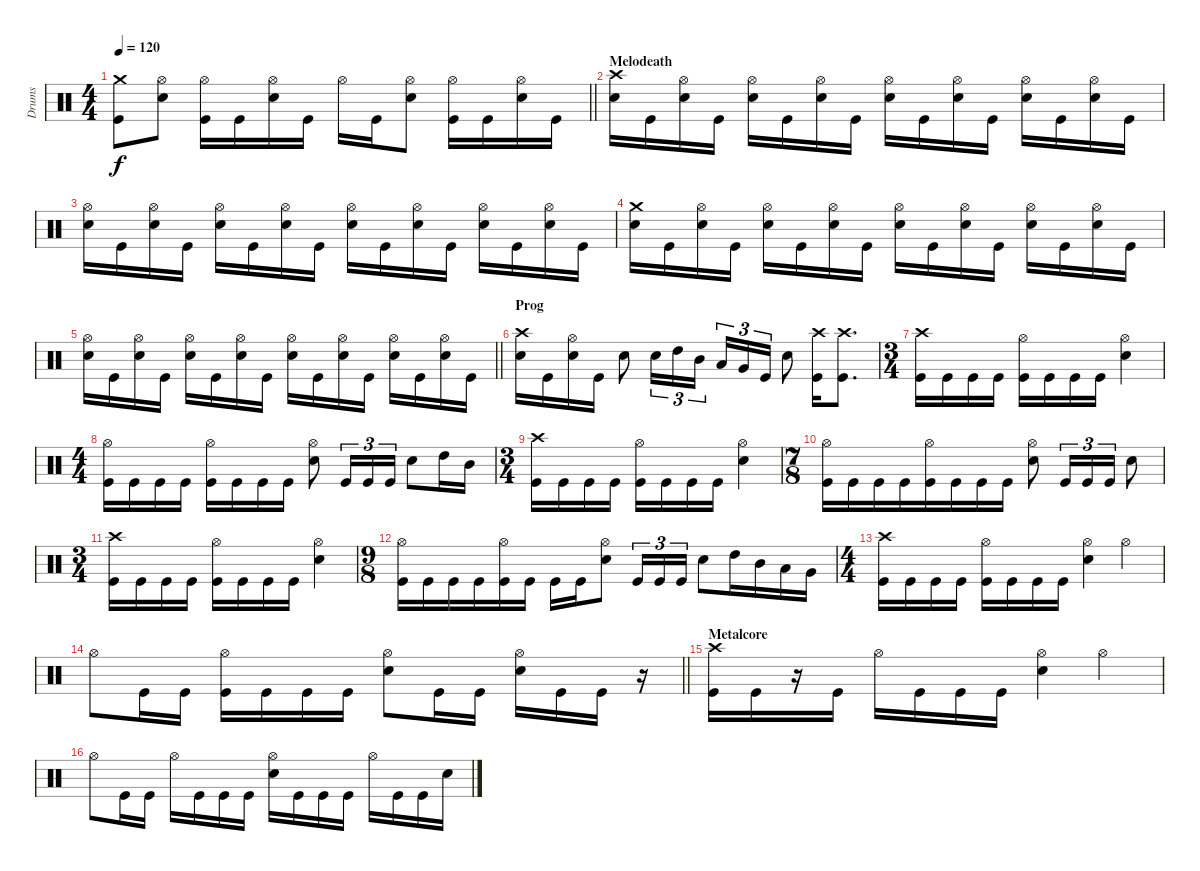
\track ("Drums" "Drums") {instrument percussion}
\staff {score}
\articulation defaults
\ts (4 4)
\tempo 120
\clef neutral
\barLineRight lightlight
\ks c
("Crash medium (hit)" "Kick (hit)").8{dy f} ("Hi-Hat (open)" "Electric Snare (hit)").8 ("Hi-Hat (open)" "Kick (hit)").16 "Kick (hit)".16 ("Hi-Hat (open)" "Electric Snare (hit)").16 "Kick (hit)".16 "Hi-Hat (open)".16 "Kick (hit)".16 ("Hi-Hat (open)" "Electric Snare (hit)").8 ("Hi-Hat (open)" "Kick (hit)").16 "Kick (hit)".16 ("Hi-Hat (open)" "Electric Snare (hit)").16 "Kick (hit)".16 |
\section ("" "Melodeath")
("Crash high (hit)" "Electric Snare (hit)").16 "Kick (hit)".16 ("Hi-Hat (open)" "Electric Snare (hit)").16 "Kick (hit)".16 ("Hi-Hat (open)" "Electric Snare (hit)").16 "Kick (hit)".16 ("Hi-Hat (open)" "Electric Snare (hit)").16 "Kick (hit)".16 ("Hi-Hat (open)" "Electric Snare (hit)").16 "Kick (hit)".16 ("Hi-Hat (open)" "Electric Snare (hit)").16 "Kick (hit)".16 ("Hi-Hat (open)" "Electric Snare (hit)").16 "Kick (hit)".16 ("Hi-Hat (open)" "Electric Snare (hit)").16 "Kick (hit)".16 |
("Hi-Hat (open)" "Electric Snare (hit)").16 "Kick (hit)".16 ("Hi-Hat (open)" "Electric Snare (hit)").16 "Kick (hit)".16 ("Hi-Hat (open)" "Electric Snare (hit)").16 "Kick (hit)".16 ("Hi-Hat (open)" "Electric Snare (hit)").16 "Kick (hit)".16 ("Hi-Hat (open)" "Electric Snare (hit)").16 "Kick (hit)".16 ("Hi-Hat (open)" "Electric Snare (hit)").16 "Kick (hit)".16 ("Hi-Hat (open)" "Electric Snare (hit)").16 "Kick (hit)".16 ("Hi-Hat (open)" "Electric Snare (hit)").16 "Kick (hit)".16 |
("Crash medium (hit)" "Electric Snare (hit)").16 "Kick (hit)".16 ("Hi-Hat (open)" "Electric Snare (hit)").16 "Kick (hit)".16 ("Hi-Hat (open)" "Electric Snare (hit)").16 "Kick (hit)".16 ("Hi-Hat (open)" "Electric Snare (hit)").16 "Kick (hit)".16 ("Hi-Hat (open)" "Electric Snare (hit)").16 "Kick (hit)".16 ("Hi-Hat (open)" "Electric Snare (hit)").16 "Kick (hit)".16 ("Hi-Hat (open)" "Electric Snare (hit)").16 "Kick (hit)".16 ("Hi-Hat (open)" "Electric Snare (hit)").16 "Kick (hit)".16 |
\barLineRight lightlight
("Hi-Hat (open)" "Electric Snare (hit)").16 "Kick (hit)".16 ("Hi-Hat (open)" "Electric Snare (hit)").16 "Kick (hit)".16 ("Hi-Hat (open)" "Electric Snare (hit)").16 "Kick (hit)".16 ("Hi-Hat (open)" "Electric Snare (hit)").16 "Kick (hit)".16 ("Hi-Hat (open)" "Electric Snare (hit)").16 "Kick (hit)".16 ("Hi-Hat (open)" "Electric Snare (hit)").16 "Kick (hit)".16 ("Hi-Hat (open)" "Electric Snare (hit)").16 "Kick (hit)".16 ("Hi-Hat (open)" "Electric Snare (hit)").16 "Kick (hit)".16 |
\section ("" "Prog")
("Crash high (hit)" "Electric Snare (hit)").16 "Kick (hit)".16 ("Hi-Hat (open)" "Electric Snare (hit)").16 "Kick (hit)".16 "Electric Snare (hit)".8 "Electric Snare (hit)".16{tu (3 2)} "High Tom (hit)".16{tu (3 2)} "Mid Tom (hit)".16{tu (3 2)} "Low Tom (hit)".16{tu (3 2)} "Very Low Tom (hit)".16{tu (3 2)} "Kick (hit)".16{tu (3 2)} "Electric Snare (hit)".8 ("Crash high (hit)" "Kick (hit)").16 ("Crash high (hit)" "Kick (hit)").8{d} |
\ts (3 4)
("Crash high (hit)" "Kick (hit)").16 "Kick (hit)".16 "Kick (hit)".16 "Kick (hit)".16 ("Hi-Hat (open)" "Kick (hit)").16 "Kick (hit)".16 "Kick (hit)".16 "Kick (hit)".16 ("Hi-Hat (open)" "Electric Snare (hit)").4 |
\ts (4 4)
("Hi-Hat (open)" "Kick (hit)").16 "Kick (hit)".16 "Kick (hit)".16 "Kick (hit)".16 ("Hi-Hat (open)" "Kick (hit)").16 "Kick (hit)".16 "Kick (hit)".16 "Kick (hit)".16 ("Hi-Hat (open)" "Electric Snare (hit)").8 "Kick (hit)".16{tu (3 2)} "Kick (hit)".16{tu (3 2)} "Kick (hit)".16{tu (3 2)} "Electric Snare (hit)".8 "High Tom (hit)".16 "Mid Tom (hit)".16 |
\ts (3 4)
("Crash high (hit)" "Kick (hit)").16 "Kick (hit)".16 "Kick (hit)".16 "Kick (hit)".16 ("Hi-Hat (open)" "Kick (hit)").16 "Kick (hit)".16 "Kick (hit)".16 "Kick (hit)".16 ("Hi-Hat (open)" "Electric Snare (hit)").4 |
\ts (7 8)
("Hi-Hat (open)" "Kick (hit)").16 "Kick (hit)".16 "Kick (hit)".16 "Kick (hit)".16 ("Hi-Hat (open)" "Kick (hit)").16 "Kick (hit)".16 "Kick (hit)".16 "Kick (hit)".16 ("Hi-Hat (open)" "Electric Snare (hit)").8 "Kick (hit)".16{tu (3 2)} "Kick (hit)".16{tu (3 2)} "Kick (hit)".16{tu (3 2)} "Electric Snare (hit)".8 |
\ts (3 4)
("Crash high (hit)" "Kick (hit)").16 "Kick (hit)".16 "Kick (hit)".16 "Kick (hit)".16 ("Hi-Hat (open)" "Kick (hit)").16 "Kick (hit)".16 "Kick (hit)".16 "Kick (hit)".16 ("Hi-Hat (open)" "Electric Snare (hit)").4 |
\ts (9 8)
("Hi-Hat (open)" "Kick (hit)").16 "Kick (hit)".16 "Kick (hit)".16 "Kick (hit)".16 ("Hi-Hat (open)" "Kick (hit)").16 "Kick (hit)".16 "Kick (hit)".16 "Kick (hit)".16 ("Hi-Hat (open)" "Electric Snare (hit)").8 "Kick (hit)".16{tu (3 2)} "Kick (hit)".16{tu (3 2)} "Kick (hit)".16{tu (3 2)} "Electric Snare (hit)".8 "High Tom (hit)".16 "Mid Tom (hit)".16 "Low Tom (hit)".16 "Very Low Tom (hit)".16 |
\ts (4 4)
("Crash high (hit)" "Kick (hit)").16 "Kick (hit)".16 "Kick (hit)".16 "Kick (hit)".16 ("Hi-Hat (open)" "Kick (hit)").16 "Kick (hit)".16 "Kick (hit)".16 "Kick (hit)".16 ("Hi-Hat (open)" "Electric Snare (hit)").4 "Hi-Hat (open)".4 |
\barLineRight lightlight "Hi-Hat (open)".8 "Kick (hit)".16 "Kick (hit)".16
("Hi-Hat (open)" "Kick (hit)").16 "Kick (hit)".16 "Kick (hit)".16 "Kick (hit)".16 ("Hi-Hat (open)" "Electric Snare (hit)").8 "Kick (hit)".16 "Kick (hit)".16 ("Hi-Hat (open)" "Electric Snare (hit)").16 "Kick (hit)".16 "Kick (hit)".16 r.16 |
\section ("" "Metalcore")
("Crash high (hit)" "Kick (hit)").16 "Kick (hit)".16 r.16 "Kick (hit)".16 "Hi-Hat (open)".16 "Kick (hit)".16 "Kick (hit)".16 "Kick (hit)".16 ("Hi-Hat (open)" "Electric Snare (hit)").4 "Hi-Hat (open)".4 |
"Hi-Hat (open)".8 "Kick (hit)".16 "Kick (hit)".16 "Hi-Hat (open)".16 "Kick (hit)".16 "Kick (hit)".16 "Kick (hit)".16 ("Hi-Hat (open)" "Electric Snare (hit)").16 "Kick (hit)".16 "Kick (hit)".16 "Kick (hit)".16 "Hi-Hat (open)".16 "Kick (hit)".16 "Kick (hit)".16 "Electric Snare (hit)".16
